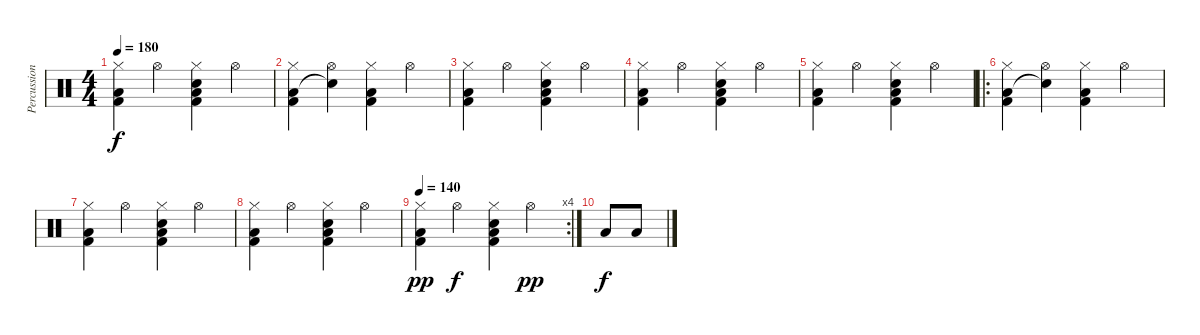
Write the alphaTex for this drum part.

\track ("Percussion" "Percussion") {instrument percussion}
\staff {score}
\articulation defaults
\ts (4 4)
\tempo 180
\clef neutral
\ks c
("Low Floor Tom (hit)" "Kick (hit) 2" "Hi-Hat (closed)").4{dy f} "Hi-Hat (open)".4 ("Low Floor Tom (hit)" "Kick (hit) 2" "Hi-Hat (closed)" "Snare (hit) 2").4 "Hi-Hat (open)".4 |
("Low Floor Tom (hit)" "Kick (hit) 2" "Hi-Hat (closed)").4 ("Snare (hit)"{t} "Hi-Hat (open)").4 ("Low Floor Tom (hit)" "Kick (hit) 2" "Hi-Hat (closed)").4 "Hi-Hat (open)".4 |
("Low Floor Tom (hit)" "Kick (hit) 2" "Hi-Hat (closed)").4 "Hi-Hat (open)".4 ("Low Floor Tom (hit)" "Kick (hit) 2" "Hi-Hat (closed)" "Snare (hit) 2").4 "Hi-Hat (open)".4 |
("Low Floor Tom (hit)" "Kick (hit) 2" "Hi-Hat (closed)").4 "Hi-Hat (open)".4 ("Low Floor Tom (hit)" "Kick (hit) 2" "Hi-Hat (closed)" "Snare (hit) 2").4 "Hi-Hat (open)".4 |
("Low Floor Tom (hit)" "Kick (hit) 2" "Hi-Hat (closed)").4 "Hi-Hat (open)".4 ("Low Floor Tom (hit)" "Kick (hit) 2" "Hi-Hat (closed)" "Snare (hit) 2").4 "Hi-Hat (open)".4 |
\ro
("Low Floor Tom (hit)" "Kick (hit) 2" "Hi-Hat (closed)").4 ("Snare (hit)"{t} "Hi-Hat (open)").4 ("Low Floor Tom (hit)" "Kick (hit) 2" "Hi-Hat (closed)").4 "Hi-Hat (open)".4 |
("Low Floor Tom (hit)" "Kick (hit) 2" "Hi-Hat (closed)").4 "Hi-Hat (open)".4 ("Low Floor Tom (hit)" "Kick (hit) 2" "Hi-Hat (closed)" "Snare (hit) 2").4 "Hi-Hat (open)".4 |
("Low Floor Tom (hit)" "Kick (hit) 2" "Hi-Hat (closed)").4 "Hi-Hat (open)".4 ("Low Floor Tom (hit)" "Kick (hit) 2" "Hi-Hat (closed)" "Snare (hit) 2").4 "Hi-Hat (open)".4 |
\rc 4
\tempo 140
("Low Floor Tom (hit)" "Kick (hit) 2" "Hi-Hat (closed)").4{dy pp} "Hi-Hat (open)".4{dy f} ("Low Floor Tom (hit)" "Kick (hit) 2" "Hi-Hat (closed)" "Snare (hit) 2").4 "Hi-Hat (open)".4{dy pp} |
"Low Floor Tom (hit)".8{dy f} "Low Floor Tom (hit)".8
